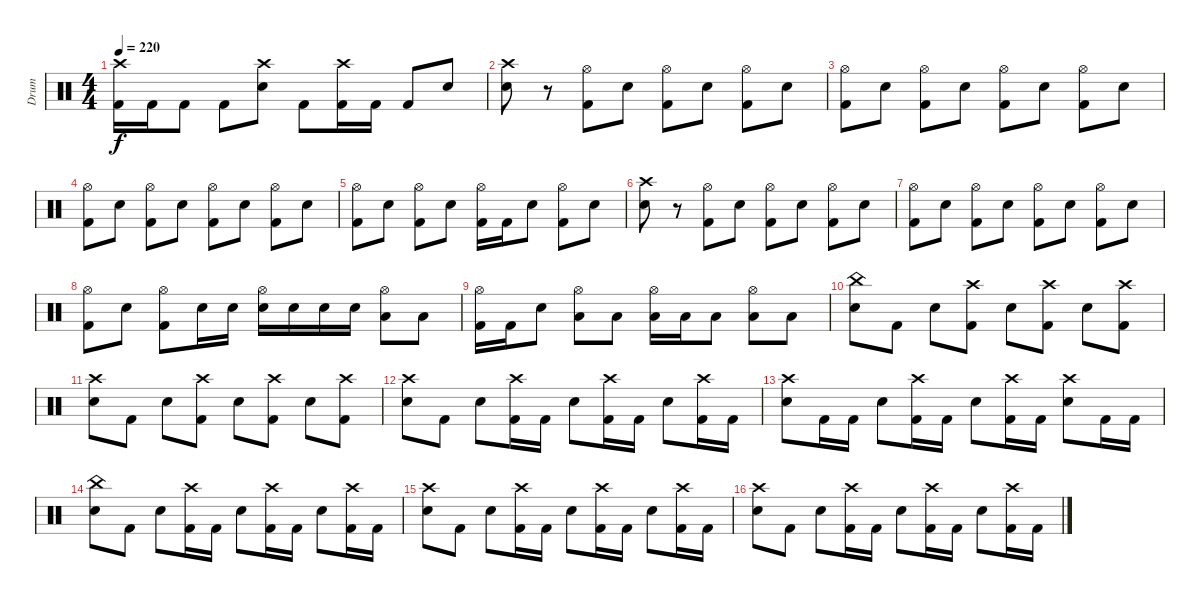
\track ("Drum" "Drum") {instrument percussion}
\staff {score}
\articulation defaults
\ts (4 4)
\tempo 220
\clef neutral
\ks c
("Crash high (hit)" "Kick (hit) 2").16{dy f} "Kick (hit) 2".16 "Kick (hit) 2".8 "Kick (hit) 2".8 ("Crash high (hit)" "Snare (hit) 2").8 "Kick (hit) 2".8 ("Crash high (hit)" "Kick (hit) 2").16 "Kick (hit) 2".16 "Kick (hit) 2".8 "Snare (hit) 2".8 |
("Crash high (hit)" "Snare (hit) 2").8 r.8 ("Hi-Hat (open)" "Kick (hit) 2").8 "Snare (hit) 2".8 ("Hi-Hat (open)" "Kick (hit) 2").8 "Snare (hit) 2".8 ("Hi-Hat (open)" "Kick (hit) 2").8 "Snare (hit) 2".8 |
("Hi-Hat (open)" "Kick (hit) 2").8 "Snare (hit) 2".8 ("Hi-Hat (open)" "Kick (hit) 2").8 "Snare (hit) 2".8 ("Hi-Hat (open)" "Kick (hit) 2").8 "Snare (hit) 2".8 ("Hi-Hat (open)" "Kick (hit) 2").8 "Snare (hit) 2".8 |
("Hi-Hat (open)" "Kick (hit) 2").8 "Snare (hit) 2".8 ("Hi-Hat (open)" "Kick (hit) 2").8 "Snare (hit) 2".8 ("Hi-Hat (open)" "Kick (hit) 2").8 "Snare (hit) 2".8 ("Hi-Hat (open)" "Kick (hit) 2").8 "Snare (hit) 2".8 |
("Hi-Hat (open)" "Kick (hit) 2").8 "Snare (hit) 2".8 ("Hi-Hat (open)" "Kick (hit) 2").8 "Snare (hit) 2".8 ("Hi-Hat (open)" "Kick (hit) 2").16 "Kick (hit) 2".16 "Snare (hit) 2".8 ("Hi-Hat (open)" "Kick (hit) 2").8 "Snare (hit) 2".8 |
("Crash high (hit)" "Snare (hit) 2").8 r.8 ("Hi-Hat (open)" "Kick (hit) 2").8 "Snare (hit) 2".8 ("Hi-Hat (open)" "Kick (hit) 2").8 "Snare (hit) 2".8 ("Hi-Hat (open)" "Kick (hit) 2").8 "Snare (hit) 2".8 |
("Hi-Hat (open)" "Kick (hit) 2").8 "Snare (hit) 2".8 ("Hi-Hat (open)" "Kick (hit) 2").8 "Snare (hit) 2".8 ("Hi-Hat (open)" "Kick (hit) 2").8 "Snare (hit) 2".8 ("Hi-Hat (open)" "Kick (hit) 2").8 "Snare (hit) 2".8 |
("Hi-Hat (open)" "Kick (hit) 2").8 "Snare (hit) 2".8 ("Hi-Hat (open)" "Kick (hit) 2").8 "Snare (hit) 2".16 "Snare (hit) 2".16 ("Hi-Hat (open)" "Snare (hit) 2").16 "Snare (hit) 2".16 "Snare (hit) 2".16 "Snare (hit) 2".16 ("Hi-Hat (open)" "Low Tom (hit)").8 "Low Tom (hit)".8 |
("Hi-Hat (open)" "Kick (hit) 2").16 "Kick (hit) 2".16 "Snare (hit) 2".8 ("Hi-Hat (open)" "Low Tom (hit)").8 "Low Tom (hit)".8 ("Hi-Hat (open)" "Low Tom (hit)").16 "Low Tom (hit)".16 "Low Tom (hit)".8 ("Hi-Hat (open)" "Low Tom (hit)").8 "Low Tom (hit)".8 |
("China (hit)" "Snare (hit) 2").8 "Kick (hit) 2".8 "Snare (hit) 2".8 ("Crash high (hit)" "Kick (hit) 2").8 "Snare (hit) 2".8 ("Crash high (hit)" "Kick (hit) 2").8 "Snare (hit) 2".8 ("Crash high (hit)" "Kick (hit) 2").8 |
("Crash high (hit)" "Snare (hit) 2").8 "Kick (hit) 2".8 "Snare (hit) 2".8 ("Crash high (hit)" "Kick (hit) 2").8 "Snare (hit) 2".8 ("Crash high (hit)" "Kick (hit) 2").8 "Snare (hit) 2".8 ("Crash high (hit)" "Kick (hit) 2").8 |
("Crash high (hit)" "Snare (hit) 2").8 "Kick (hit) 2".8 "Snare (hit) 2".8 ("Crash high (hit)" "Kick (hit) 2").16 "Kick (hit) 2".16 "Snare (hit) 2".8 ("Crash high (hit)" "Kick (hit) 2").16 "Kick (hit) 2".16 "Snare (hit) 2".8 ("Crash high (hit)" "Kick (hit) 2").16 "Kick (hit) 2".16 |
("Crash high (hit)" "Snare (hit) 2").8 "Kick (hit) 2".16 "Kick (hit) 2".16 "Snare (hit) 2".8 ("Crash high (hit)" "Kick (hit) 2").16 "Kick (hit) 2".16 "Snare (hit) 2".8 ("Crash high (hit)" "Kick (hit) 2").16 "Kick (hit) 2".16 ("Crash high (hit)" "Snare (hit) 2").8 "Kick (hit) 2".16 "Kick (hit) 2".16 |
("China (hit)" "Snare (hit) 2").8 "Kick (hit) 2".8 "Snare (hit) 2".8 ("Crash high (hit)" "Kick (hit) 2").16 "Kick (hit) 2".16 "Snare (hit) 2".8 ("Crash high (hit)" "Kick (hit) 2").16 "Kick (hit) 2".16 "Snare (hit) 2".8 ("Crash high (hit)" "Kick (hit) 2").16 "Kick (hit) 2".16 |
("Crash high (hit)" "Snare (hit) 2").8 "Kick (hit) 2".8 "Snare (hit) 2".8 ("Crash high (hit)" "Kick (hit) 2").16 "Kick (hit) 2".16 "Snare (hit) 2".8 ("Crash high (hit)" "Kick (hit) 2").16 "Kick (hit) 2".16 "Snare (hit) 2".8 ("Crash high (hit)" "Kick (hit) 2").16 "Kick (hit) 2".16 |
("Crash high (hit)" "Snare (hit) 2").8 "Kick (hit) 2".8 "Snare (hit) 2".8 ("Crash high (hit)" "Kick (hit) 2").16 "Kick (hit) 2".16 "Snare (hit) 2".8 ("Crash high (hit)" "Kick (hit) 2").16 "Kick (hit) 2".16 "Snare (hit) 2".8 ("Crash high (hit)" "Kick (hit) 2").16 "Kick (hit) 2".16
